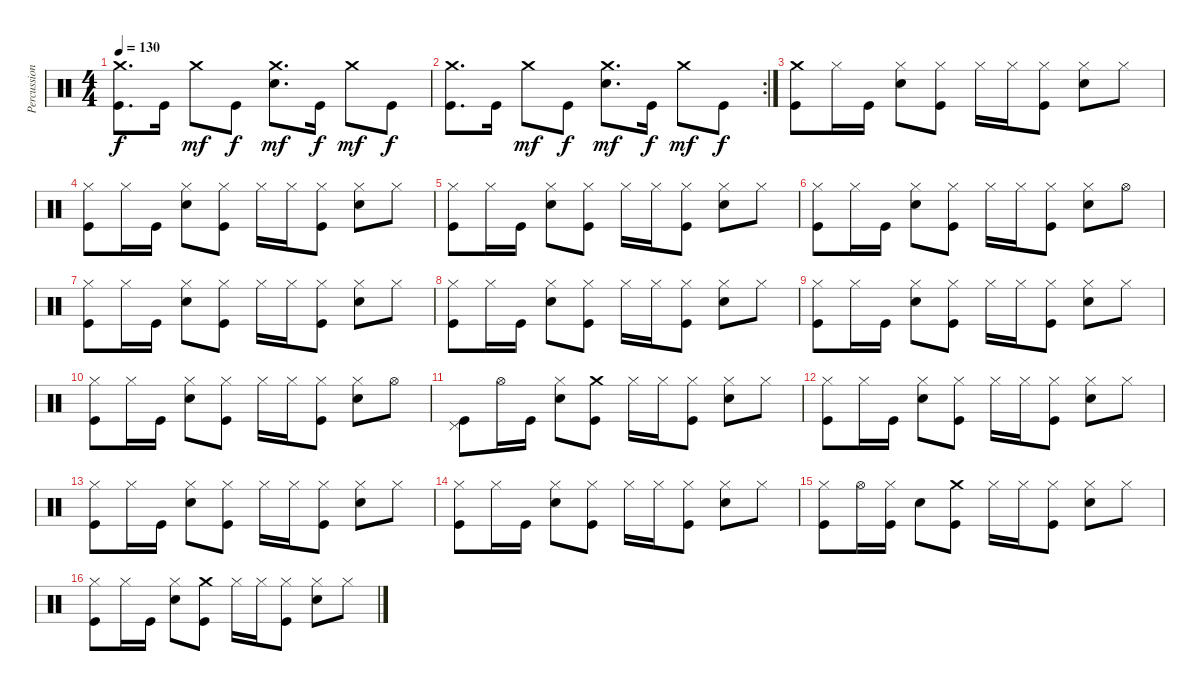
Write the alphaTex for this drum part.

\track ("Percussion" "Percussion") {instrument percussion}
\staff {score}
\articulation defaults
\ts (4 4)
\tempo 130
\clef neutral
\ks c
("Crash medium (hit)" "Kick (hit)").8{d dy f} "Kick (hit)".16 "Crash medium (hit)".8{dy mf} "Kick (hit)".8{dy f} ("Crash medium (hit)" "Snare (hit) 2").8{d dy mf} "Kick (hit)".16{dy f} "Crash medium (hit)".8{dy mf} "Kick (hit)".8{dy f} |
\rc 2
("Crash medium (hit)" "Kick (hit)").8{d} "Kick (hit)".16 "Crash medium (hit)".8{dy mf} "Kick (hit)".8{dy f} ("Crash medium (hit)" "Snare (hit) 2").8{d dy mf} "Kick (hit)".16{dy f} "Crash medium (hit)".8{dy mf} "Kick (hit)".8{dy f} |
("Crash medium (hit)" "Kick (hit)").8 "Hi-Hat (closed)".16 "Kick (hit)".16 ("Hi-Hat (closed)" "Snare (hit) 2").8 ("Hi-Hat (closed)" "Kick (hit)").8 "Hi-Hat (closed)".16 "Hi-Hat (closed)".16 ("Hi-Hat (closed)" "Kick (hit)").8 ("Hi-Hat (closed)" "Snare (hit) 2").8 "Hi-Hat (closed)".8 |
("Hi-Hat (closed)" "Kick (hit)").8 "Hi-Hat (closed)".16 "Kick (hit)".16 ("Hi-Hat (closed)" "Snare (hit) 2").8 ("Hi-Hat (closed)" "Kick (hit)").8 "Hi-Hat (closed)".16 "Hi-Hat (closed)".16 ("Hi-Hat (closed)" "Kick (hit)").8 ("Hi-Hat (closed)" "Snare (hit) 2").8 "Hi-Hat (closed)".8 |
("Hi-Hat (closed)" "Kick (hit)").8 "Hi-Hat (closed)".16 "Kick (hit)".16 ("Hi-Hat (closed)" "Snare (hit) 2").8 ("Hi-Hat (closed)" "Kick (hit)").8 "Hi-Hat (closed)".16 "Hi-Hat (closed)".16 ("Hi-Hat (closed)" "Kick (hit)").8 ("Hi-Hat (closed)" "Snare (hit) 2").8 "Hi-Hat (closed)".8 |
("Hi-Hat (closed)" "Kick (hit)").8 "Hi-Hat (closed)".16 "Kick (hit)".16 ("Hi-Hat (closed)" "Snare (hit) 2").8 ("Hi-Hat (closed)" "Kick (hit)").8 "Hi-Hat (closed)".16 "Hi-Hat (closed)".16 ("Hi-Hat (closed)" "Kick (hit)").8 ("Hi-Hat (closed)" "Snare (hit) 2").8 "Hi-Hat (open)".8 |
("Hi-Hat (closed)" "Kick (hit)").8 "Hi-Hat (closed)".16 "Kick (hit)".16 ("Hi-Hat (closed)" "Snare (hit) 2").8 ("Hi-Hat (closed)" "Kick (hit)").8 "Hi-Hat (closed)".16 "Hi-Hat (closed)".16 ("Hi-Hat (closed)" "Kick (hit)").8 ("Hi-Hat (closed)" "Snare (hit) 2").8 "Hi-Hat (closed)".8 |
("Hi-Hat (closed)" "Kick (hit)").8 "Hi-Hat (closed)".16 "Kick (hit)".16 ("Hi-Hat (closed)" "Snare (hit) 2").8 ("Hi-Hat (closed)" "Kick (hit)").8 "Hi-Hat (closed)".16 "Hi-Hat (closed)".16 ("Hi-Hat (closed)" "Kick (hit)").8 ("Hi-Hat (closed)" "Snare (hit) 2").8 "Hi-Hat (closed)".8 |
("Hi-Hat (closed)" "Kick (hit)").8 "Hi-Hat (closed)".16 "Kick (hit)".16 ("Hi-Hat (closed)" "Snare (hit) 2").8 ("Hi-Hat (closed)" "Kick (hit)").8 "Hi-Hat (closed)".16 "Hi-Hat (closed)".16 ("Hi-Hat (closed)" "Kick (hit)").8 ("Hi-Hat (closed)" "Snare (hit) 2").8 "Hi-Hat (closed)".8 |
("Hi-Hat (closed)" "Kick (hit)").8 "Hi-Hat (closed)".16 "Kick (hit)".16 ("Hi-Hat (closed)" "Snare (hit) 2").8 ("Hi-Hat (closed)" "Kick (hit)").8 "Hi-Hat (closed)".16 "Hi-Hat (closed)".16 ("Hi-Hat (closed)" "Kick (hit)").8 ("Hi-Hat (closed)" "Snare (hit) 2").8 "Hi-Hat (open)".8 |
("Pedal Hi-Hat (hit)" "Kick (hit)").8 "Hi-Hat (open)".16 "Kick (hit)".16 ("Hi-Hat (closed)" "Snare (hit) 2").8 ("Crash medium (hit)" "Kick (hit)").8 "Hi-Hat (closed)".16 "Hi-Hat (closed)".16 ("Hi-Hat (closed)" "Kick (hit)").8 ("Hi-Hat (closed)" "Snare (hit) 2").8 "Hi-Hat (closed)".8 |
("Hi-Hat (closed)" "Kick (hit)").8 "Hi-Hat (closed)".16 "Kick (hit)".16 ("Hi-Hat (closed)" "Snare (hit) 2").8 ("Hi-Hat (closed)" "Kick (hit)").8 "Hi-Hat (closed)".16 "Hi-Hat (closed)".16 ("Hi-Hat (closed)" "Kick (hit)").8 ("Hi-Hat (closed)" "Snare (hit) 2").8 "Hi-Hat (closed)".8 |
("Hi-Hat (closed)" "Kick (hit)").8 "Hi-Hat (closed)".16 "Kick (hit)".16 ("Hi-Hat (closed)" "Snare (hit) 2").8 ("Hi-Hat (closed)" "Kick (hit)").8 "Hi-Hat (closed)".16 "Hi-Hat (closed)".16 ("Hi-Hat (closed)" "Kick (hit)").8 ("Hi-Hat (closed)" "Snare (hit) 2").8 "Hi-Hat (closed)".8 |
("Hi-Hat (closed)" "Kick (hit)").8 "Hi-Hat (closed)".16 "Kick (hit)".16 ("Hi-Hat (closed)" "Snare (hit) 2").8 ("Hi-Hat (closed)" "Kick (hit)").8 "Hi-Hat (closed)".16 "Hi-Hat (closed)".16 ("Hi-Hat (closed)" "Kick (hit)").8 ("Hi-Hat (closed)" "Snare (hit) 2").8 "Hi-Hat (closed)".8 |
("Hi-Hat (closed)" "Kick (hit)").8 "Hi-Hat (open)".16 ("Hi-Hat (closed)" "Kick (hit)").16 "Snare (hit) 2".8 ("Crash medium (hit)" "Kick (hit)").8 "Hi-Hat (closed)".16 "Hi-Hat (closed)".16 ("Hi-Hat (closed)" "Kick (hit)").8 ("Hi-Hat (closed)" "Snare (hit) 2").8 "Hi-Hat (closed)".8 |
("Hi-Hat (closed)" "Kick (hit)").8 "Hi-Hat (closed)".16 "Kick (hit)".16 ("Hi-Hat (closed)" "Snare (hit) 2").8 ("Crash medium (hit)" "Kick (hit)").8 "Hi-Hat (closed)".16 "Hi-Hat (closed)".16 ("Hi-Hat (closed)" "Kick (hit)").8 ("Hi-Hat (closed)" "Snare (hit) 2").8 "Hi-Hat (closed)".8
